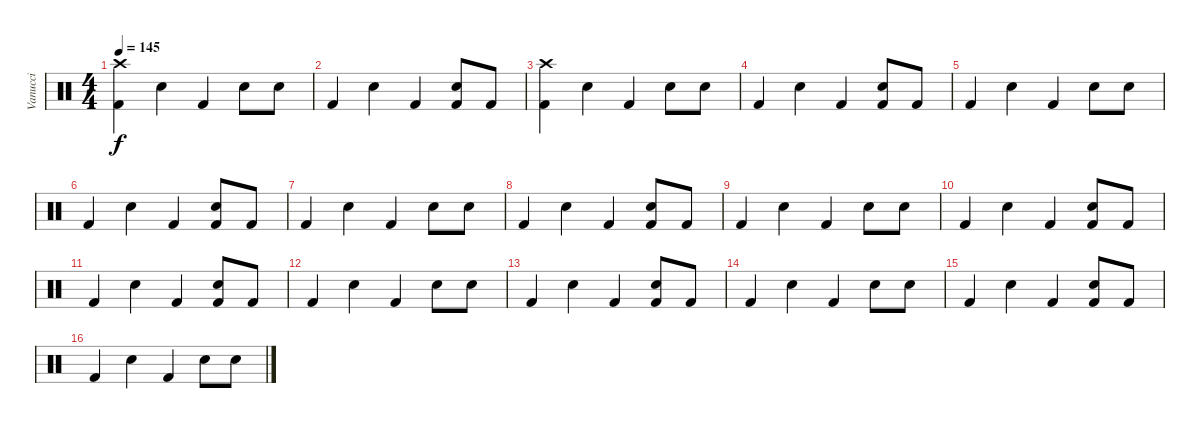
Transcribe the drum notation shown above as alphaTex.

\track ("Vanucci" "Vanucci") {instrument percussion}
\staff {score}
\articulation defaults
\ts (4 4)
\tempo 145
\clef neutral
\ks c
("Crash high (hit)" "Kick (hit) 2").4{dy f} "Electric Snare (hit)".4 "Kick (hit) 2".4 "Electric Snare (hit)".8 "Electric Snare (hit)".8 |
"Kick (hit) 2".4 "Electric Snare (hit)".4 "Kick (hit) 2".4 ("Electric Snare (hit)" "Kick (hit) 2").8 "Kick (hit) 2".8 |
("Crash high (hit)" "Kick (hit) 2").4 "Electric Snare (hit)".4 "Kick (hit) 2".4 "Electric Snare (hit)".8 "Electric Snare (hit)".8 |
"Kick (hit) 2".4 "Electric Snare (hit)".4 "Kick (hit) 2".4 ("Electric Snare (hit)" "Kick (hit) 2").8 "Kick (hit) 2".8 |
"Kick (hit) 2".4 "Electric Snare (hit)".4 "Kick (hit) 2".4 "Electric Snare (hit)".8 "Electric Snare (hit)".8 |
"Kick (hit) 2".4 "Electric Snare (hit)".4 "Kick (hit) 2".4 ("Electric Snare (hit)" "Kick (hit) 2").8 "Kick (hit) 2".8 |
"Kick (hit) 2".4 "Electric Snare (hit)".4 "Kick (hit) 2".4 "Electric Snare (hit)".8 "Electric Snare (hit)".8 |
"Kick (hit) 2".4 "Electric Snare (hit)".4 "Kick (hit) 2".4 ("Electric Snare (hit)" "Kick (hit) 2").8 "Kick (hit) 2".8 |
"Kick (hit) 2".4 "Electric Snare (hit)".4 "Kick (hit) 2".4 "Electric Snare (hit)".8 "Electric Snare (hit)".8 |
"Kick (hit) 2".4 "Electric Snare (hit)".4 "Kick (hit) 2".4 ("Electric Snare (hit)" "Kick (hit) 2").8 "Kick (hit) 2".8 |
"Kick (hit) 2".4 "Electric Snare (hit)".4 "Kick (hit) 2".4 ("Electric Snare (hit)" "Kick (hit) 2").8 "Kick (hit) 2".8 |
"Kick (hit) 2".4 "Electric Snare (hit)".4 "Kick (hit) 2".4 "Electric Snare (hit)".8 "Electric Snare (hit)".8 |
"Kick (hit) 2".4 "Electric Snare (hit)".4 "Kick (hit) 2".4 ("Electric Snare (hit)" "Kick (hit) 2").8 "Kick (hit) 2".8 |
"Kick (hit) 2".4 "Electric Snare (hit)".4 "Kick (hit) 2".4 "Electric Snare (hit)".8 "Electric Snare (hit)".8 |
"Kick (hit) 2".4 "Electric Snare (hit)".4 "Kick (hit) 2".4 ("Electric Snare (hit)" "Kick (hit) 2").8 "Kick (hit) 2".8 |
"Kick (hit) 2".4 "Electric Snare (hit)".4 "Kick (hit) 2".4 "Electric Snare (hit)".8 "Electric Snare (hit)".8
